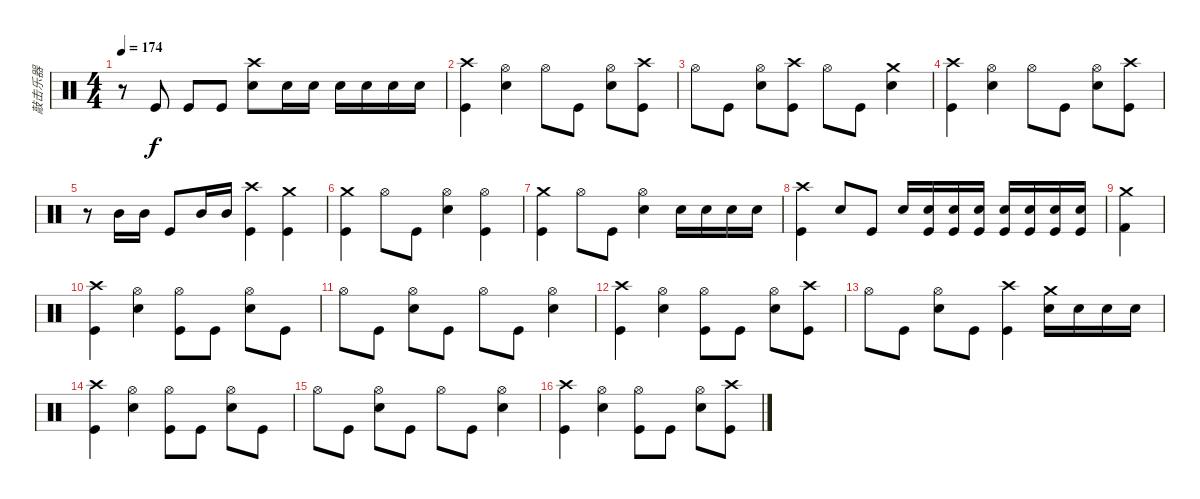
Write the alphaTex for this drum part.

\track ("敲击乐器" "敲击乐器") {instrument percussion}
\staff {score}
\articulation defaults
\ts (4 4)
\tempo 174
\clef neutral
\ks c
r.8{dy f} "Kick (hit)".8 "Kick (hit)".8 "Kick (hit)".8 ("Crash high (hit)" "Electric Snare (hit)").8 "Electric Snare (hit)".16 "Electric Snare (hit)".16 "Electric Snare (hit)".16 "Electric Snare (hit)".16 "Electric Snare (hit)".16 "Electric Snare (hit)".16 |
("Crash high (hit)" "Kick (hit)").4 ("Hi-Hat (open)" "Electric Snare (hit)").4 "Hi-Hat (open)".8 "Kick (hit)".8 ("Electric Snare (hit)" "Hi-Hat (open)").8 ("Kick (hit)" "Crash high (hit)").8 |
"Hi-Hat (open)".8 "Kick (hit)".8 ("Hi-Hat (open)" "Electric Snare (hit)").8 ("Kick (hit)" "Crash high (hit)").8 "Hi-Hat (open)".8 "Kick (hit)".8 ("Electric Snare (hit)" "Crash medium (hit)").4 |
("Crash high (hit)" "Kick (hit)").4 ("Hi-Hat (open)" "Electric Snare (hit)").4 "Hi-Hat (open)".8 "Kick (hit)".8 ("Electric Snare (hit)" "Hi-Hat (open)").8 ("Kick (hit)" "Crash high (hit)").8 |
r.8 "Mid Tom (hit)".16 "Mid Tom (hit)".16 "Kick (hit)".8 "Mid Tom (hit)".16 "Mid Tom (hit)".16 ("Kick (hit)" "Crash high (hit)").4 ("Kick (hit)" "Crash medium (hit)").4 |
("Kick (hit)" "Crash medium (hit)").4 "Hi-Hat (open)".8 "Kick (hit)".8 ("Hi-Hat (open)" "Electric Snare (hit)").4 ("Kick (hit)" "Hi-Hat (open)").4 |
("Kick (hit)" "Crash medium (hit)").4 "Hi-Hat (open)".8 "Kick (hit)".8 ("Hi-Hat (open)" "Electric Snare (hit)").4 "Electric Snare (hit)".16 "Electric Snare (hit)".16 "Electric Snare (hit)".16 "Electric Snare (hit)".16 |
("Crash high (hit)" "Kick (hit)").4 "Electric Snare (hit)".8 "Kick (hit)".8 "Electric Snare (hit)".16 ("Electric Snare (hit)" "Kick (hit)").16 ("Electric Snare (hit)" "Kick (hit)").16 ("Electric Snare (hit)" "Kick (hit)").16 ("Electric Snare (hit)" "Kick (hit)").16 ("Electric Snare (hit)" "Kick (hit)").16 ("Electric Snare (hit)" "Kick (hit)").16 ("Kick (hit)" "Electric Snare (hit)").16 |
("Kick (hit) 2" "Crash medium (hit)").4 |
("Kick (hit)" "Crash high (hit)").4 ("Hi-Hat (open)" "Electric Snare (hit)").4 ("Hi-Hat (open)" "Kick (hit)").8 "Kick (hit)".8 ("Hi-Hat (open)" "Electric Snare (hit)").8 "Kick (hit)".8 |
"Hi-Hat (open)".8 "Kick (hit)".8 ("Hi-Hat (open)" "Electric Snare (hit)").8 "Kick (hit)".8 "Hi-Hat (open)".8 "Kick (hit)".8 ("Electric Snare (hit)" "Hi-Hat (open)").4 |
("Kick (hit)" "Crash high (hit)").4 ("Hi-Hat (open)" "Electric Snare (hit)").4 ("Hi-Hat (open)" "Kick (hit)").8 "Kick (hit)".8 ("Hi-Hat (open)" "Electric Snare (hit)").8 ("Kick (hit)" "Crash high (hit)").8 |
"Hi-Hat (open)".8 "Kick (hit)".8 ("Hi-Hat (open)" "Electric Snare (hit)").8 "Kick (hit)".8 ("Kick (hit)" "Crash high (hit)").4 ("Electric Snare (hit)" "Crash medium (hit)").16 "Electric Snare (hit)".16 "Electric Snare (hit)".16 "Electric Snare (hit)".16 |
("Kick (hit)" "Crash high (hit)").4 ("Hi-Hat (open)" "Electric Snare (hit)").4 ("Hi-Hat (open)" "Kick (hit)").8 "Kick (hit)".8 ("Hi-Hat (open)" "Electric Snare (hit)").8 "Kick (hit)".8 |
"Hi-Hat (open)".8 "Kick (hit)".8 ("Hi-Hat (open)" "Electric Snare (hit)").8 "Kick (hit)".8 "Hi-Hat (open)".8 "Kick (hit)".8 ("Electric Snare (hit)" "Hi-Hat (open)").4 |
("Kick (hit)" "Crash high (hit)").4 ("Hi-Hat (open)" "Electric Snare (hit)").4 ("Hi-Hat (open)" "Kick (hit)").8 "Kick (hit)".8 ("Hi-Hat (open)" "Electric Snare (hit)").8 ("Kick (hit)" "Crash high (hit)").8
